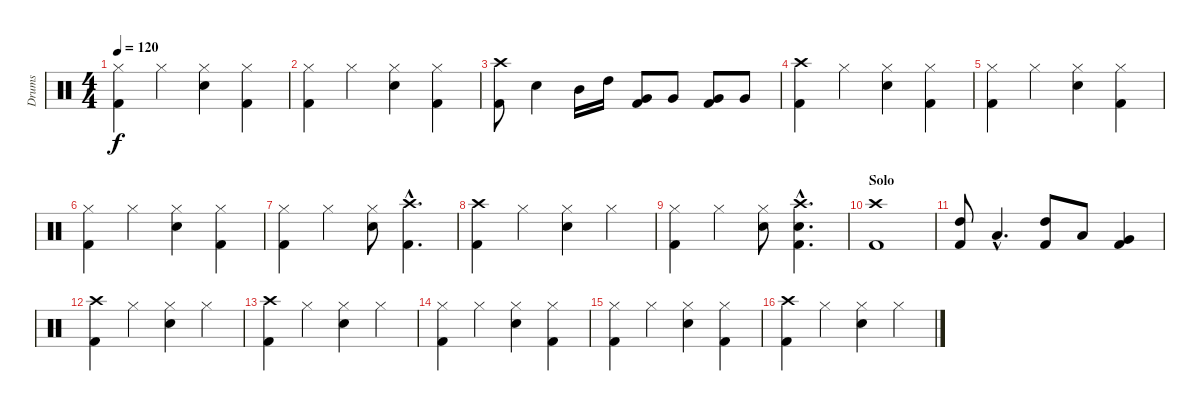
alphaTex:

\track ("Drums" "Drums") {instrument percussion}
\staff {score}
\articulation defaults
\ts (4 4)
\tempo 120
\clef neutral
\ks c
("Hi-Hat (closed)" "Kick (hit) 2").4{dy f} "Hi-Hat (closed)".4 ("Hi-Hat (closed)" "Electric Snare (hit)").4 ("Hi-Hat (closed)" "Kick (hit) 2").4 |
("Hi-Hat (closed)" "Kick (hit) 2").4 "Hi-Hat (closed)".4 ("Hi-Hat (closed)" "Electric Snare (hit)").4 ("Hi-Hat (closed)" "Kick (hit) 2").4 |
("Crash high (hit)" "Kick (hit) 2").8 "Electric Snare (hit)".4 "Mid Tom (hit)".16 "High Tom (hit)".16 ("Very Low Tom (hit)" "Kick (hit) 2").8 "Very Low Tom (hit)".8 ("Very Low Tom (hit)" "Kick (hit) 2").8 "Very Low Tom (hit)".8 |
("Crash high (hit)" "Kick (hit) 2").4 "Hi-Hat (closed)".4 ("Hi-Hat (closed)" "Electric Snare (hit)").4 ("Hi-Hat (closed)" "Kick (hit) 2").4 |
("Hi-Hat (closed)" "Kick (hit) 2").4 "Hi-Hat (closed)".4 ("Hi-Hat (closed)" "Electric Snare (hit)").4 ("Hi-Hat (closed)" "Kick (hit) 2").4 |
("Hi-Hat (closed)" "Kick (hit) 2").4 "Hi-Hat (closed)".4 ("Hi-Hat (closed)" "Electric Snare (hit)").4 ("Hi-Hat (closed)" "Kick (hit) 2").4 |
("Hi-Hat (closed)" "Kick (hit) 2").4 "Hi-Hat (closed)".4 ("Hi-Hat (closed)" "Electric Snare (hit)").8 ("Crash high (hit)"{hac} "Kick (hit) 2"{hac}).4{d} |
("Crash high (hit)" "Kick (hit) 2").4 "Hi-Hat (closed)".4 ("Hi-Hat (closed)" "Electric Snare (hit)").4 "Hi-Hat (closed)".4 |
("Hi-Hat (closed)" "Kick (hit) 2").4 "Hi-Hat (closed)".4 ("Hi-Hat (closed)" "Electric Snare (hit)").8 ("Crash high (hit)"{hac} "Electric Snare (hit)"{hac} "Kick (hit) 2"{hac}).4{d} |
\section ("" "Solo")
("Crash high (hit)" "Kick (hit) 2").1 |
("High Tom (hit)" "Kick (hit) 2").8 "Low Tom (hit)"{hac}.4{d} ("High Tom (hit)" "Kick (hit) 2").8 "Low Tom (hit)".8 ("Very Low Tom (hit)" "Kick (hit) 2").4 |
("Crash high (hit)" "Kick (hit) 2").4 "Hi-Hat (closed)".4 ("Hi-Hat (closed)" "Electric Snare (hit)").4 "Hi-Hat (closed)".4 |
("Crash high (hit)" "Kick (hit) 2").4 "Hi-Hat (closed)".4 ("Hi-Hat (closed)" "Electric Snare (hit)").4 "Hi-Hat (closed)".4 |
("Hi-Hat (closed)" "Kick (hit) 2").4 "Hi-Hat (closed)".4 ("Hi-Hat (closed)" "Electric Snare (hit)").4 ("Hi-Hat (closed)" "Kick (hit) 2").4 |
("Hi-Hat (closed)" "Kick (hit) 2").4 "Hi-Hat (closed)".4 ("Hi-Hat (closed)" "Electric Snare (hit)").4 ("Hi-Hat (closed)" "Kick (hit) 2").4 |
("Crash high (hit)" "Kick (hit) 2").4 "Hi-Hat (closed)".4 ("Hi-Hat (closed)" "Electric Snare (hit)").4 "Hi-Hat (closed)".4
